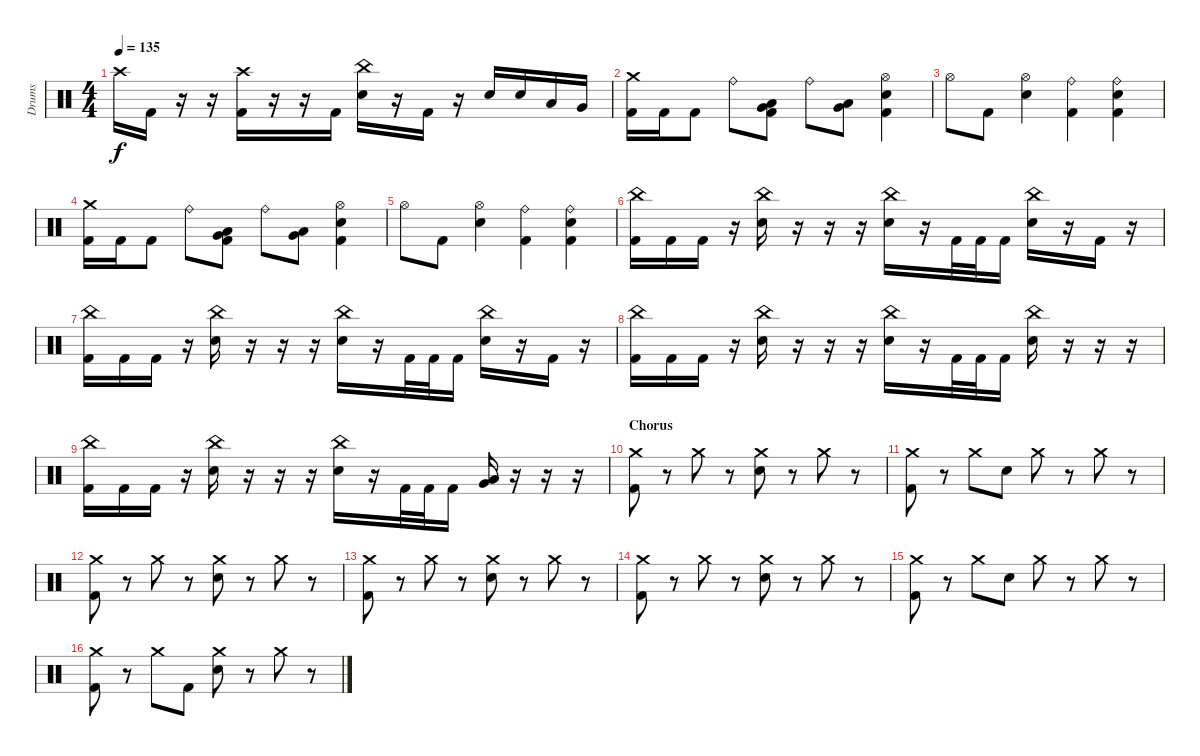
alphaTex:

\track ("Drums" "Drums") {instrument percussion}
\staff {score}
\articulation defaults
\ts (4 4)
\tempo 135
\clef neutral
\ks c "Crash high (hit)".16{dy f} "Kick (hit) 2".16
r.16 r.16 ("Crash high (hit)" "Kick (hit) 2").16 r.16 r.16 "Kick (hit) 2".16 ("China (hit)" "Snare (hit) 2").16 r.16 "Kick (hit) 2".16 r.16 "Electric Snare (hit)".16 "Electric Snare (hit)".16 "Low Tom (hit)".16 "Very Low Tom (hit)".16 |
("Crash medium (hit)" "Kick (hit) 2").16 "Kick (hit) 2".16 "Kick (hit) 2".8 "Ride (bell)".8 ("Very Low Tom (hit)" "Low Floor Tom (hit)" "Kick (hit) 2").8 "Ride (bell)".8 ("Very Low Tom (hit)" "Low Floor Tom (hit)").8 ("Hi-Hat (open)" "Snare (hit) 2" "Kick (hit) 2").4 |
"Hi-Hat (open)".8 "Kick (hit) 2".8 ("Hi-Hat (open)" "Snare (hit) 2").4 ("Ride (bell)" "Kick (hit) 2").4 ("Ride (bell)" "Snare (hit) 2" "Kick (hit) 2").4 |
("Crash medium (hit)" "Kick (hit) 2").16 "Kick (hit) 2".16 "Kick (hit) 2".8 "Ride (bell)".8 ("Very Low Tom (hit)" "Low Floor Tom (hit)" "Kick (hit) 2").8 "Ride (bell)".8 ("Very Low Tom (hit)" "Low Floor Tom (hit)").8 ("Hi-Hat (open)" "Snare (hit) 2" "Kick (hit) 2").4 |
"Hi-Hat (open)".8 "Kick (hit) 2".8 ("Hi-Hat (open)" "Snare (hit) 2").4 ("Ride (bell)" "Kick (hit) 2").4 ("Ride (bell)" "Snare (hit) 2" "Kick (hit) 2").4 |
("China (hit)" "Kick (hit) 2").16 "Kick (hit) 2".16 "Kick (hit) 2".16 r.16 ("China (hit)" "Electric Snare (hit)").16 r.16 r.16 r.16 ("China (hit)" "Electric Snare (hit)").16 r.16 "Kick (hit) 2".32 "Kick (hit) 2".32 "Kick (hit) 2".16 ("China (hit)" "Electric Snare (hit)").16 r.16 "Kick (hit) 2".16 r.16 |
("China (hit)" "Kick (hit) 2").16 "Kick (hit) 2".16 "Kick (hit) 2".16 r.16 ("China (hit)" "Electric Snare (hit)").16 r.16 r.16 r.16 ("China (hit)" "Electric Snare (hit)").16 r.16 "Kick (hit) 2".32 "Kick (hit) 2".32 "Kick (hit) 2".16 ("China (hit)" "Electric Snare (hit)").16 r.16 "Kick (hit) 2".16 r.16 |
("China (hit)" "Kick (hit) 2").16 "Kick (hit) 2".16 "Kick (hit) 2".16 r.16 ("China (hit)" "Electric Snare (hit)").16 r.16 r.16 r.16 ("China (hit)" "Electric Snare (hit)").16 r.16 "Kick (hit) 2".32 "Kick (hit) 2".32 "Kick (hit) 2".16 ("China (hit)" "Electric Snare (hit)").16 r.16 r.16 r.16 |
("China (hit)" "Kick (hit) 2").16 "Kick (hit) 2".16 "Kick (hit) 2".16 r.16 ("China (hit)" "Electric Snare (hit)").16 r.16 r.16 r.16 ("China (hit)" "Electric Snare (hit)").16 r.16 "Kick (hit) 2".32 "Kick (hit) 2".32 "Kick (hit) 2".16 ("Very Low Tom (hit)" "Low Floor Tom (hit)").16 r.16 r.16 r.16 |
\section ("" "Chorus")
("Crash medium (hit)" "Kick (hit) 2").8 r.8 "Crash medium (hit)".8 r.8 ("Crash medium (hit)" "Electric Snare (hit)").8 r.8 "Crash medium (hit)".8 r.8 |
("Crash medium (hit)" "Kick (hit) 2").8 r.8 "Crash medium (hit)".8 "Electric Snare (hit)".8 "Crash medium (hit)".8 r.8 "Crash medium (hit)".8 r.8 |
("Crash medium (hit)" "Kick (hit) 2").8 r.8 "Crash medium (hit)".8 r.8 ("Crash medium (hit)" "Electric Snare (hit)").8 r.8 "Crash medium (hit)".8 r.8 |
("Crash medium (hit)" "Kick (hit) 2").8 r.8 "Crash medium (hit)".8 r.8 ("Crash medium (hit)" "Electric Snare (hit)").8 r.8 "Crash medium (hit)".8 r.8 |
("Crash medium (hit)" "Kick (hit) 2").8 r.8 "Crash medium (hit)".8 r.8 ("Crash medium (hit)" "Electric Snare (hit)").8 r.8 "Crash medium (hit)".8 r.8 |
("Crash medium (hit)" "Kick (hit) 2").8 r.8 "Crash medium (hit)".8 "Electric Snare (hit)".8 "Crash medium (hit)".8 r.8 "Crash medium (hit)".8 r.8 |
("Crash medium (hit)" "Kick (hit) 2").8 r.8 "Crash medium (hit)".8 "Kick (hit) 2".8 ("Crash medium (hit)" "Electric Snare (hit)").8 r.8 "Crash medium (hit)".8 r.8
